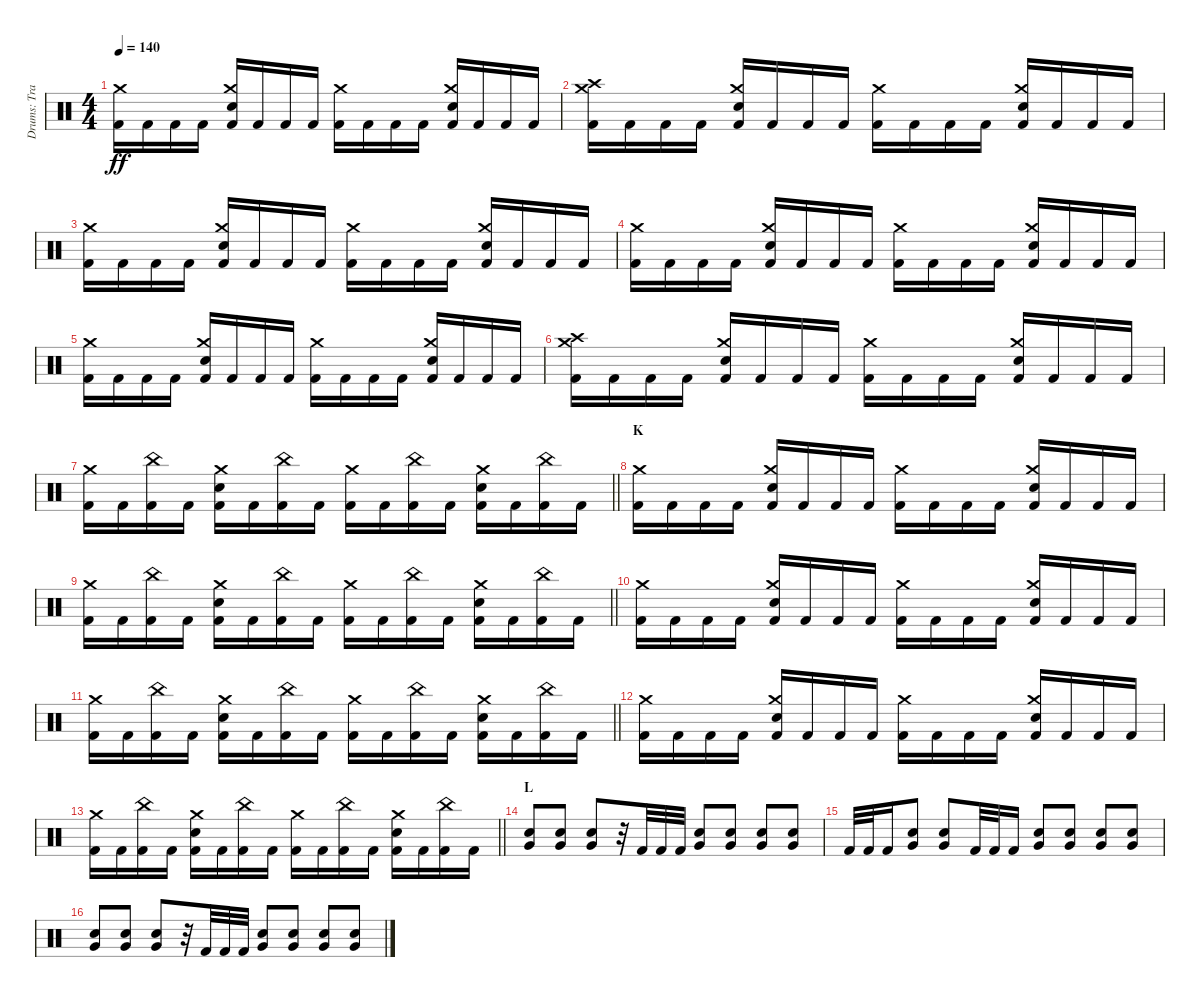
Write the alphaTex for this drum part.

\track ("Drums: Travis Clarke" "Drums: Tra") {instrument percussion}
\staff {score}
\articulation defaults
\ts (4 4)
\tempo 140
\clef neutral
\ks c
("Kick (hit) 2" "Crash medium (hit)").16{dy ff} "Kick (hit) 2".16 "Kick (hit) 2".16 "Kick (hit) 2".16 ("Kick (hit) 2" "Snare (hit) 2" "Crash medium (hit)").16 "Kick (hit) 2".16 "Kick (hit) 2".16 "Kick (hit) 2".16 ("Kick (hit) 2" "Crash medium (hit)").16 "Kick (hit) 2".16 "Kick (hit) 2".16 "Kick (hit) 2".16 ("Kick (hit) 2" "Snare (hit) 2" "Crash medium (hit)").16 "Kick (hit) 2".16 "Kick (hit) 2".16 "Kick (hit) 2".16 |
("Kick (hit) 2" "Crash high (hit)" "Crash medium (hit)").16 "Kick (hit) 2".16 "Kick (hit) 2".16 "Kick (hit) 2".16 ("Kick (hit) 2" "Snare (hit) 2" "Crash medium (hit)").16 "Kick (hit) 2".16 "Kick (hit) 2".16 "Kick (hit) 2".16 ("Kick (hit) 2" "Crash medium (hit)").16 "Kick (hit) 2".16 "Kick (hit) 2".16 "Kick (hit) 2".16 ("Kick (hit) 2" "Snare (hit) 2" "Crash medium (hit)").16 "Kick (hit) 2".16 "Kick (hit) 2".16 "Kick (hit) 2".16 |
("Kick (hit) 2" "Crash medium (hit)").16 "Kick (hit) 2".16 "Kick (hit) 2".16 "Kick (hit) 2".16 ("Kick (hit) 2" "Snare (hit) 2" "Crash medium (hit)").16 "Kick (hit) 2".16 "Kick (hit) 2".16 "Kick (hit) 2".16 ("Kick (hit) 2" "Crash medium (hit)").16 "Kick (hit) 2".16 "Kick (hit) 2".16 "Kick (hit) 2".16 ("Kick (hit) 2" "Snare (hit) 2" "Crash medium (hit)").16 "Kick (hit) 2".16 "Kick (hit) 2".16 "Kick (hit) 2".16 |
("Kick (hit) 2" "Crash medium (hit)").16 "Kick (hit) 2".16 "Kick (hit) 2".16 "Kick (hit) 2".16 ("Kick (hit) 2" "Snare (hit) 2" "Crash medium (hit)").16 "Kick (hit) 2".16 "Kick (hit) 2".16 "Kick (hit) 2".16 ("Kick (hit) 2" "Crash medium (hit)").16 "Kick (hit) 2".16 "Kick (hit) 2".16 "Kick (hit) 2".16 ("Kick (hit) 2" "Snare (hit) 2" "Crash medium (hit)").16 "Kick (hit) 2".16 "Kick (hit) 2".16 "Kick (hit) 2".16 |
("Kick (hit) 2" "Crash medium (hit)").16 "Kick (hit) 2".16 "Kick (hit) 2".16 "Kick (hit) 2".16 ("Kick (hit) 2" "Snare (hit) 2" "Crash medium (hit)").16 "Kick (hit) 2".16 "Kick (hit) 2".16 "Kick (hit) 2".16 ("Kick (hit) 2" "Crash medium (hit)").16 "Kick (hit) 2".16 "Kick (hit) 2".16 "Kick (hit) 2".16 ("Kick (hit) 2" "Snare (hit) 2" "Crash medium (hit)").16 "Kick (hit) 2".16 "Kick (hit) 2".16 "Kick (hit) 2".16 |
("Kick (hit) 2" "Crash high (hit)" "Crash medium (hit)").16 "Kick (hit) 2".16 "Kick (hit) 2".16 "Kick (hit) 2".16 ("Kick (hit) 2" "Snare (hit) 2" "Crash medium (hit)").16 "Kick (hit) 2".16 "Kick (hit) 2".16 "Kick (hit) 2".16 ("Kick (hit) 2" "Crash medium (hit)").16 "Kick (hit) 2".16 "Kick (hit) 2".16 "Kick (hit) 2".16 ("Kick (hit) 2" "Snare (hit) 2" "Crash medium (hit)").16 "Kick (hit) 2".16 "Kick (hit) 2".16 "Kick (hit) 2".16 |
\barLineRight lightlight
("Kick (hit) 2" "Crash medium (hit)").16 "Kick (hit) 2".16 ("Kick (hit) 2" "China (hit)").16 "Kick (hit) 2".16 ("Kick (hit) 2" "Snare (hit) 2" "Crash medium (hit)").16 "Kick (hit) 2".16 ("Kick (hit) 2" "China (hit)").16 "Kick (hit) 2".16 ("Kick (hit) 2" "Crash medium (hit)").16 "Kick (hit) 2".16 ("Kick (hit) 2" "China (hit)").16 "Kick (hit) 2".16 ("Kick (hit) 2" "Snare (hit) 2" "Crash medium (hit)").16 "Kick (hit) 2".16 ("Kick (hit) 2" "China (hit)").16 "Kick (hit) 2".16 |
\section ("" "K")
("Kick (hit) 2" "Crash medium (hit)").16 "Kick (hit) 2".16 "Kick (hit) 2".16 "Kick (hit) 2".16 ("Kick (hit) 2" "Snare (hit) 2" "Crash medium (hit)").16 "Kick (hit) 2".16 "Kick (hit) 2".16 "Kick (hit) 2".16 ("Kick (hit) 2" "Crash medium (hit)").16 "Kick (hit) 2".16 "Kick (hit) 2".16 "Kick (hit) 2".16 ("Kick (hit) 2" "Snare (hit) 2" "Crash medium (hit)").16 "Kick (hit) 2".16 "Kick (hit) 2".16 "Kick (hit) 2".16 |
\barLineRight lightlight
("Kick (hit) 2" "Crash medium (hit)").16 "Kick (hit) 2".16 ("Kick (hit) 2" "China (hit)").16 "Kick (hit) 2".16 ("Kick (hit) 2" "Snare (hit) 2" "Crash medium (hit)").16 "Kick (hit) 2".16 ("Kick (hit) 2" "China (hit)").16 "Kick (hit) 2".16 ("Kick (hit) 2" "Crash medium (hit)").16 "Kick (hit) 2".16 ("Kick (hit) 2" "China (hit)").16 "Kick (hit) 2".16 ("Kick (hit) 2" "Snare (hit) 2" "Crash medium (hit)").16 "Kick (hit) 2".16 ("Kick (hit) 2" "China (hit)").16 "Kick (hit) 2".16 |
("Kick (hit) 2" "Crash medium (hit)").16 "Kick (hit) 2".16 "Kick (hit) 2".16 "Kick (hit) 2".16 ("Kick (hit) 2" "Snare (hit) 2" "Crash medium (hit)").16 "Kick (hit) 2".16 "Kick (hit) 2".16 "Kick (hit) 2".16 ("Kick (hit) 2" "Crash medium (hit)").16 "Kick (hit) 2".16 "Kick (hit) 2".16 "Kick (hit) 2".16 ("Kick (hit) 2" "Snare (hit) 2" "Crash medium (hit)").16 "Kick (hit) 2".16 "Kick (hit) 2".16 "Kick (hit) 2".16 |
\barLineRight lightlight
("Kick (hit) 2" "Crash medium (hit)").16 "Kick (hit) 2".16 ("Kick (hit) 2" "China (hit)").16 "Kick (hit) 2".16 ("Kick (hit) 2" "Snare (hit) 2" "Crash medium (hit)").16 "Kick (hit) 2".16 ("Kick (hit) 2" "China (hit)").16 "Kick (hit) 2".16 ("Kick (hit) 2" "Crash medium (hit)").16 "Kick (hit) 2".16 ("Kick (hit) 2" "China (hit)").16 "Kick (hit) 2".16 ("Kick (hit) 2" "Snare (hit) 2" "Crash medium (hit)").16 "Kick (hit) 2".16 ("Kick (hit) 2" "China (hit)").16 "Kick (hit) 2".16 |
("Kick (hit) 2" "Crash medium (hit)").16 "Kick (hit) 2".16 "Kick (hit) 2".16 "Kick (hit) 2".16 ("Kick (hit) 2" "Snare (hit) 2" "Crash medium (hit)").16 "Kick (hit) 2".16 "Kick (hit) 2".16 "Kick (hit) 2".16 ("Kick (hit) 2" "Crash medium (hit)").16 "Kick (hit) 2".16 "Kick (hit) 2".16 "Kick (hit) 2".16 ("Kick (hit) 2" "Snare (hit) 2" "Crash medium (hit)").16 "Kick (hit) 2".16 "Kick (hit) 2".16 "Kick (hit) 2".16 |
\barLineRight lightlight
("Kick (hit) 2" "Crash medium (hit)").16 "Kick (hit) 2".16 ("Kick (hit) 2" "China (hit)").16 "Kick (hit) 2".16 ("Kick (hit) 2" "Snare (hit) 2" "Crash medium (hit)").16 "Kick (hit) 2".16 ("Kick (hit) 2" "China (hit)").16 "Kick (hit) 2".16 ("Kick (hit) 2" "Crash medium (hit)").16 "Kick (hit) 2".16 ("Kick (hit) 2" "China (hit)").16 "Kick (hit) 2".16 ("Kick (hit) 2" "Snare (hit) 2" "Crash medium (hit)").16 "Kick (hit) 2".16 ("Kick (hit) 2" "China (hit)").16 "Kick (hit) 2".16 |
\section ("" "L")
("Snare (hit) 2" "Very Low Tom (hit)").8 ("Snare (hit) 2" "Very Low Tom (hit)").8 ("Snare (hit) 2" "Very Low Tom (hit)").8 r.32 "Kick (hit) 2".32 "Kick (hit) 2".32 "Kick (hit) 2".32 ("Snare (hit) 2" "Very Low Tom (hit)").8 ("Snare (hit) 2" "Very Low Tom (hit)").8 ("Snare (hit) 2" "Very Low Tom (hit)").8 ("Snare (hit) 2" "Very Low Tom (hit)").8 |
"Kick (hit) 2".32 "Kick (hit) 2".32 "Kick (hit) 2".16 ("Snare (hit) 2" "Very Low Tom (hit)").8 ("Snare (hit) 2" "Very Low Tom (hit)").8 "Kick (hit) 2".32 "Kick (hit) 2".32 "Kick (hit) 2".16 ("Snare (hit) 2" "Very Low Tom (hit)").8 ("Snare (hit) 2" "Very Low Tom (hit)").8 ("Snare (hit) 2" "Very Low Tom (hit)").8 ("Snare (hit) 2" "Very Low Tom (hit)").8 |
("Snare (hit) 2" "Very Low Tom (hit)").8 ("Snare (hit) 2" "Very Low Tom (hit)").8 ("Snare (hit) 2" "Very Low Tom (hit)").8 r.32 "Kick (hit) 2".32 "Kick (hit) 2".32 "Kick (hit) 2".32 ("Snare (hit) 2" "Very Low Tom (hit)").8 ("Snare (hit) 2" "Very Low Tom (hit)").8 ("Snare (hit) 2" "Very Low Tom (hit)").8 ("Snare (hit) 2" "Very Low Tom (hit)").8
